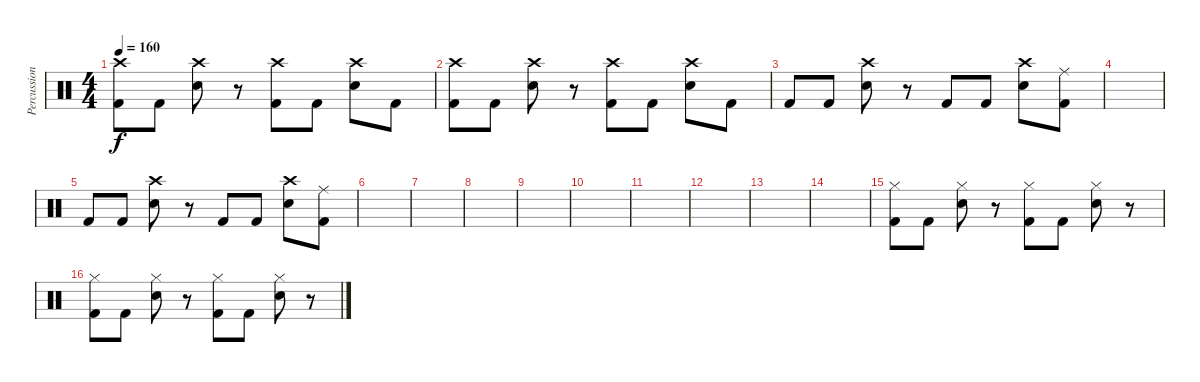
\track ("Percussion" "Percussion") {instrument percussion}
\staff {score}
\articulation defaults
\ts (4 4)
\tempo 160
\clef neutral
\ks c
("Crash high (hit)" "Kick (hit) 2").8{dy f} "Kick (hit) 2".8 ("Crash high (hit)" "Snare (hit) 2").8 r.8 ("Crash high (hit)" "Kick (hit) 2").8 "Kick (hit) 2".8 ("Crash high (hit)" "Snare (hit) 2").8 "Kick (hit) 2".8 |
("Crash high (hit)" "Kick (hit) 2").8 "Kick (hit) 2".8 ("Crash high (hit)" "Snare (hit) 2").8 r.8 ("Crash high (hit)" "Kick (hit) 2").8 "Kick (hit) 2".8 ("Crash high (hit)" "Snare (hit) 2").8 "Kick (hit) 2".8 |
"Kick (hit) 2".8 "Kick (hit) 2".8 ("Crash high (hit)" "Snare (hit) 2").8 r.8 "Kick (hit) 2".8 "Kick (hit) 2".8 ("Crash high (hit)" "Snare (hit) 2").8 ("Ride (middle)" "Kick (hit) 2").8 |
|
"Kick (hit) 2".8 "Kick (hit) 2".8 ("Crash high (hit)" "Snare (hit) 2").8 r.8 "Kick (hit) 2".8 "Kick (hit) 2".8 ("Crash high (hit)" "Snare (hit) 2").8 ("Ride (middle)" "Kick (hit) 2").8 |
|
|
|
|
|
|
|
|
|
("Kick (hit) 2" "Hi-Hat (closed)").8 "Kick (hit) 2".8 ("Snare (hit) 2" "Hi-Hat (closed)").8 r.8 ("Kick (hit) 2" "Hi-Hat (closed)").8 "Kick (hit) 2".8 ("Snare (hit) 2" "Hi-Hat (closed)").8 r.8 |
("Kick (hit) 2" "Hi-Hat (closed)").8 "Kick (hit) 2".8 ("Snare (hit) 2" "Hi-Hat (closed)").8 r.8 ("Kick (hit) 2" "Hi-Hat (closed)").8 "Kick (hit) 2".8 ("Snare (hit) 2" "Hi-Hat (closed)").8 r.8
